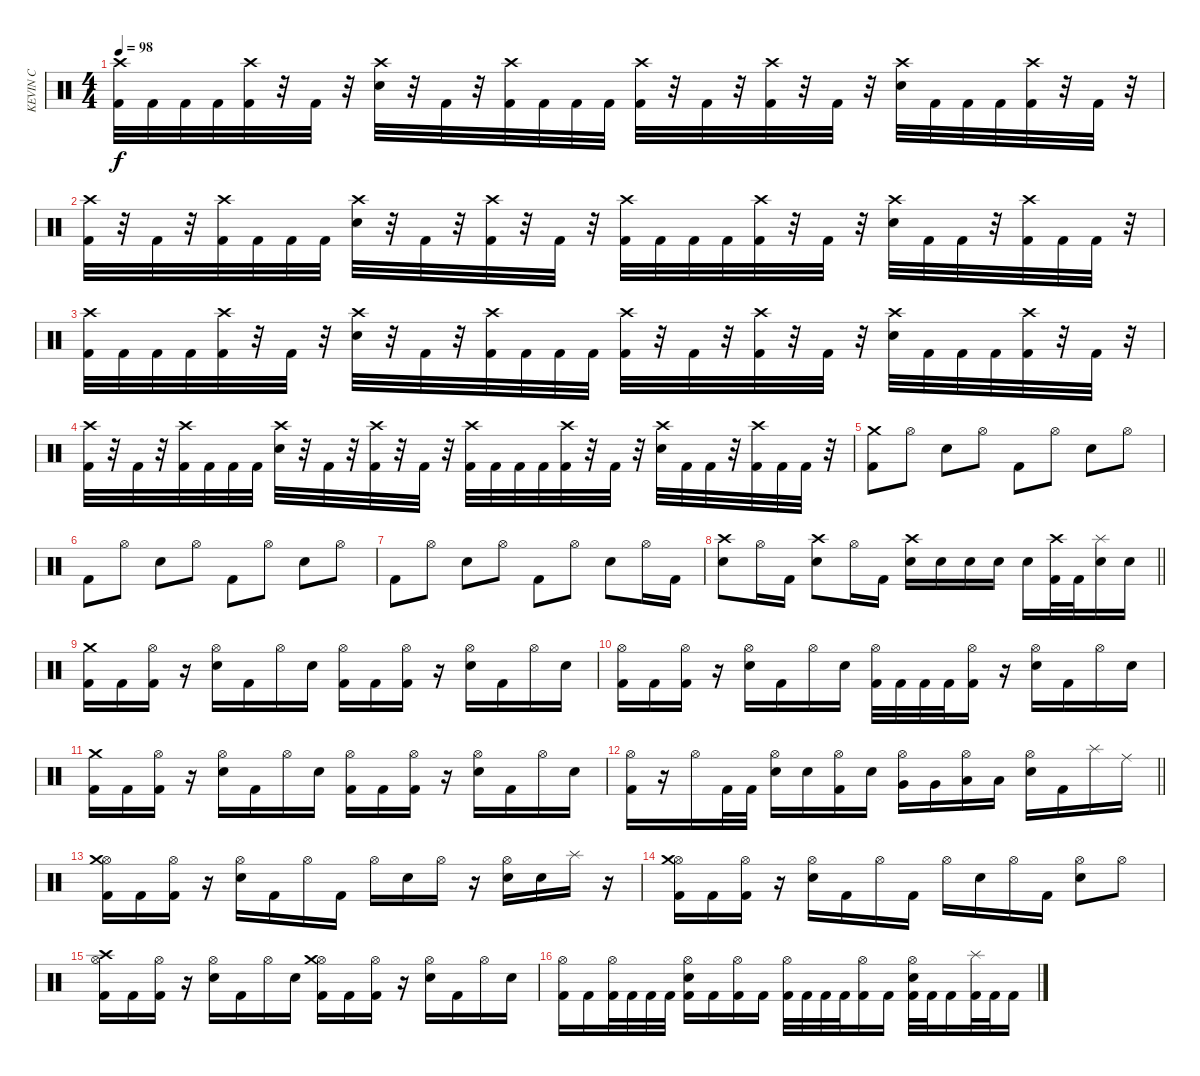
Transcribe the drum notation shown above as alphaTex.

\track ("KEVIN C" "KEVIN C") {instrument percussion}
\staff {score}
\articulation defaults
\ts (4 4)
\tempo 98
\clef neutral
\ks c
("Crash high (hit)" "Kick (hit) 2").32{dy f} "Kick (hit) 2".32 "Kick (hit) 2".32 "Kick (hit) 2".32 ("Crash high (hit)" "Kick (hit) 2").32 r.32 "Kick (hit) 2".32 r.32 ("Crash high (hit)" "Snare (hit) 2").32 r.32 "Kick (hit) 2".32 r.32 ("Crash high (hit)" "Kick (hit) 2").32 "Kick (hit) 2".32 "Kick (hit) 2".32 "Kick (hit) 2".32 ("Crash high (hit)" "Kick (hit) 2").32 r.32 "Kick (hit) 2".32 r.32 ("Crash high (hit)" "Kick (hit) 2").32 r.32 "Kick (hit) 2".32 r.32 ("Crash high (hit)" "Snare (hit) 2").32 "Kick (hit) 2".32 "Kick (hit) 2".32 "Kick (hit) 2".32 ("Crash high (hit)" "Kick (hit) 2").32 r.32 "Kick (hit) 2".32 r.32 |
("Crash high (hit)" "Kick (hit) 2").32 r.32 "Kick (hit) 2".32 r.32 ("Crash high (hit)" "Kick (hit) 2").32 "Kick (hit) 2".32 "Kick (hit) 2".32 "Kick (hit) 2".32 ("Crash high (hit)" "Snare (hit) 2").32 r.32 "Kick (hit) 2".32 r.32 ("Crash high (hit)" "Kick (hit) 2").32 r.32 "Kick (hit) 2".32 r.32 ("Crash high (hit)" "Kick (hit) 2").32 "Kick (hit) 2".32 "Kick (hit) 2".32 "Kick (hit) 2".32 ("Crash high (hit)" "Kick (hit) 2").32 r.32 "Kick (hit) 2".32 r.32 ("Crash high (hit)" "Snare (hit) 2").32 "Kick (hit) 2".32 "Kick (hit) 2".32 r.32 ("Crash high (hit)" "Kick (hit) 2").32 "Kick (hit) 2".32 "Kick (hit) 2".32 r.32 |
("Crash high (hit)" "Kick (hit) 2").32 "Kick (hit) 2".32 "Kick (hit) 2".32 "Kick (hit) 2".32 ("Crash high (hit)" "Kick (hit) 2").32 r.32 "Kick (hit) 2".32 r.32 ("Crash high (hit)" "Snare (hit) 2").32 r.32 "Kick (hit) 2".32 r.32 ("Crash high (hit)" "Kick (hit) 2").32 "Kick (hit) 2".32 "Kick (hit) 2".32 "Kick (hit) 2".32 ("Crash high (hit)" "Kick (hit) 2").32 r.32 "Kick (hit) 2".32 r.32 ("Crash high (hit)" "Kick (hit) 2").32 r.32 "Kick (hit) 2".32 r.32 ("Crash high (hit)" "Snare (hit) 2").32 "Kick (hit) 2".32 "Kick (hit) 2".32 "Kick (hit) 2".32 ("Crash high (hit)" "Kick (hit) 2").32 r.32 "Kick (hit) 2".32 r.32 |
("Crash high (hit)" "Kick (hit) 2").32 r.32 "Kick (hit) 2".32 r.32 ("Crash high (hit)" "Kick (hit) 2").32 "Kick (hit) 2".32 "Kick (hit) 2".32 "Kick (hit) 2".32 ("Crash high (hit)" "Snare (hit) 2").32 r.32 "Kick (hit) 2".32 r.32 ("Crash high (hit)" "Kick (hit) 2").32 r.32 "Kick (hit) 2".32 r.32 ("Crash high (hit)" "Kick (hit) 2").32 "Kick (hit) 2".32 "Kick (hit) 2".32 "Kick (hit) 2".32 ("Crash high (hit)" "Kick (hit) 2").32 r.32 "Kick (hit) 2".32 r.32 ("Crash high (hit)" "Snare (hit) 2").32 "Kick (hit) 2".32 "Kick (hit) 2".32 r.32 ("Crash high (hit)" "Kick (hit) 2").32 "Kick (hit) 2".32 "Kick (hit) 2".32 r.32 |
("Crash medium (hit)" "Kick (hit) 2").8 "Hi-Hat (open)".8 "Snare (hit) 2".8 "Hi-Hat (open)".8 "Kick (hit) 2".8 "Hi-Hat (open)".8 "Snare (hit) 2".8 "Hi-Hat (open)".8 |
"Kick (hit) 2".8 "Hi-Hat (open)".8 "Snare (hit) 2".8 "Hi-Hat (open)".8 "Kick (hit) 2".8 "Hi-Hat (open)".8 "Snare (hit) 2".8 "Hi-Hat (open)".8 |
"Kick (hit) 2".8 "Hi-Hat (open)".8 "Snare (hit) 2".8 "Hi-Hat (open)".8 "Kick (hit) 2".8 "Hi-Hat (open)".8 "Snare (hit) 2".8 "Hi-Hat (open)".16 "Kick (hit) 2".16 |
\barLineRight lightlight
("Crash high (hit)" "Snare (hit) 2").8 "Hi-Hat (open)".16 "Kick (hit) 2".16 ("Crash high (hit)" "Snare (hit) 2").8 "Hi-Hat (open)".16 "Kick (hit) 2".16 ("Crash high (hit)" "Snare (hit) 2").16 "Snare (hit) 2".16 "Snare (hit) 2".16 "Snare (hit) 2".16 "Snare (hit) 2".16 ("Crash high (hit)" "Kick (hit) 2").32 "Kick (hit) 2".32 ("Splash (hit)" "Snare (hit) 2").16 "Snare (hit) 2".16 |
("Crash medium (hit)" "Kick (hit) 2").16 "Kick (hit) 2".16 ("Hi-Hat (open)" "Kick (hit) 2").16 r.16 ("Hi-Hat (open)" "Snare (hit) 2").16 "Kick (hit) 2".16 "Hi-Hat (open)".16 "Snare (hit) 2".16 ("Hi-Hat (open)" "Kick (hit) 2").16 "Kick (hit) 2".16 ("Hi-Hat (open)" "Kick (hit) 2").16 r.16 ("Hi-Hat (open)" "Snare (hit) 2").16 "Kick (hit) 2".16 "Hi-Hat (open)".16 "Snare (hit) 2".16 |
("Hi-Hat (open)" "Kick (hit) 2").16 "Kick (hit) 2".16 ("Hi-Hat (open)" "Kick (hit) 2").16 r.16 ("Hi-Hat (open)" "Snare (hit) 2").16 "Kick (hit) 2".16 "Hi-Hat (open)".16 "Snare (hit) 2".16 ("Hi-Hat (open)" "Kick (hit) 2").32 "Kick (hit) 2".32 "Kick (hit) 2".32 "Kick (hit) 2".32 ("Hi-Hat (open)" "Kick (hit) 2").16 r.16 ("Hi-Hat (open)" "Snare (hit) 2").16 "Kick (hit) 2".16 "Hi-Hat (open)".16 "Snare (hit) 2".16 |
("Crash medium (hit)" "Kick (hit) 2").16 "Kick (hit) 2".16 ("Hi-Hat (open)" "Kick (hit) 2").16 r.16 ("Hi-Hat (open)" "Snare (hit) 2").16 "Kick (hit) 2".16 "Hi-Hat (open)".16 "Snare (hit) 2".16 ("Hi-Hat (open)" "Kick (hit) 2").16 "Kick (hit) 2".16 ("Hi-Hat (open)" "Kick (hit) 2").16 r.16 ("Hi-Hat (open)" "Snare (hit) 2").16 "Kick (hit) 2".16 "Hi-Hat (open)".16 "Snare (hit) 2".16 |
\barLineRight lightlight
("Hi-Hat (open)" "Kick (hit) 2").16 r.16 "Hi-Hat (open)".16 "Kick (hit) 2".32 "Kick (hit) 2".32 ("Hi-Hat (open)" "Snare (hit) 2").16 "Snare (hit) 2".16 ("Hi-Hat (open)" "Kick (hit) 2").16 "Snare (hit) 2".16 ("Hi-Hat (open)" "Very Low Tom (hit)").16 "Very Low Tom (hit)".16 ("Hi-Hat (open)" "Low Floor Tom (hit)").16 "Low Floor Tom (hit)".16 ("Hi-Hat (open)" "Snare (hit) 2").16 "Kick (hit) 2".16 "Splash (hit)".16 "Ride (middle)".16 |
("Hi-Hat (open)" "Crash medium (hit)" "Kick (hit) 2").16 "Kick (hit) 2".16 ("Hi-Hat (open)" "Kick (hit) 2").16 r.16 ("Hi-Hat (open)" "Snare (hit) 2").16 "Kick (hit) 2".16 "Hi-Hat (open)".16 "Kick (hit) 2".16 "Hi-Hat (open)".16 "Snare (hit) 2".16 "Hi-Hat (open)".16 r.16 ("Hi-Hat (open)" "Snare (hit) 2").16 "Snare (hit) 2".16 "Splash (hit)".16 r.16 |
("Hi-Hat (open)" "Crash medium (hit)" "Kick (hit) 2").16 "Kick (hit) 2".16 ("Hi-Hat (open)" "Kick (hit) 2").16 r.16 ("Hi-Hat (open)" "Snare (hit) 2").16 "Kick (hit) 2".16 "Hi-Hat (open)".16 "Kick (hit) 2".16 "Hi-Hat (open)".16 "Snare (hit) 2".16 "Hi-Hat (open)".16 "Kick (hit) 2".16 ("Hi-Hat (open)" "Snare (hit) 2").8 "Hi-Hat (open)".8 |
("Hi-Hat (open)" "Crash high (hit)" "Kick (hit) 2").16 "Kick (hit) 2".16 ("Hi-Hat (open)" "Kick (hit) 2").16 r.16 ("Hi-Hat (open)" "Snare (hit) 2").16 "Kick (hit) 2".16 "Hi-Hat (open)".16 "Snare (hit) 2".16 ("Hi-Hat (open)" "Crash medium (hit)" "Kick (hit) 2").16 "Kick (hit) 2".16 ("Hi-Hat (open)" "Kick (hit) 2").16 r.16 ("Hi-Hat (open)" "Snare (hit) 2").16 "Kick (hit) 2".16 "Hi-Hat (open)".16 "Snare (hit) 2".16 |
("Hi-Hat (open)" "Kick (hit) 2").16 "Kick (hit) 2".16 ("Hi-Hat (open)" "Kick (hit) 2").32 "Kick (hit) 2".32 "Kick (hit) 2".32 "Kick (hit) 2".32 ("Hi-Hat (open)" "Snare (hit) 2" "Kick (hit) 2").16 "Kick (hit) 2".16 ("Hi-Hat (open)" "Kick (hit) 2").16 "Kick (hit) 2".16 ("Hi-Hat (open)" "Kick (hit) 2").32 "Kick (hit) 2".32 "Kick (hit) 2".32 "Kick (hit) 2".32 ("Hi-Hat (open)" "Kick (hit) 2").16 "Kick (hit) 2".16 ("Hi-Hat (open)" "Snare (hit) 2" "Kick (hit) 2").32 "Kick (hit) 2".32 "Kick (hit) 2".16 ("Splash (hit)" "Kick (hit) 2").32 "Kick (hit) 2".32 "Kick (hit) 2".16
